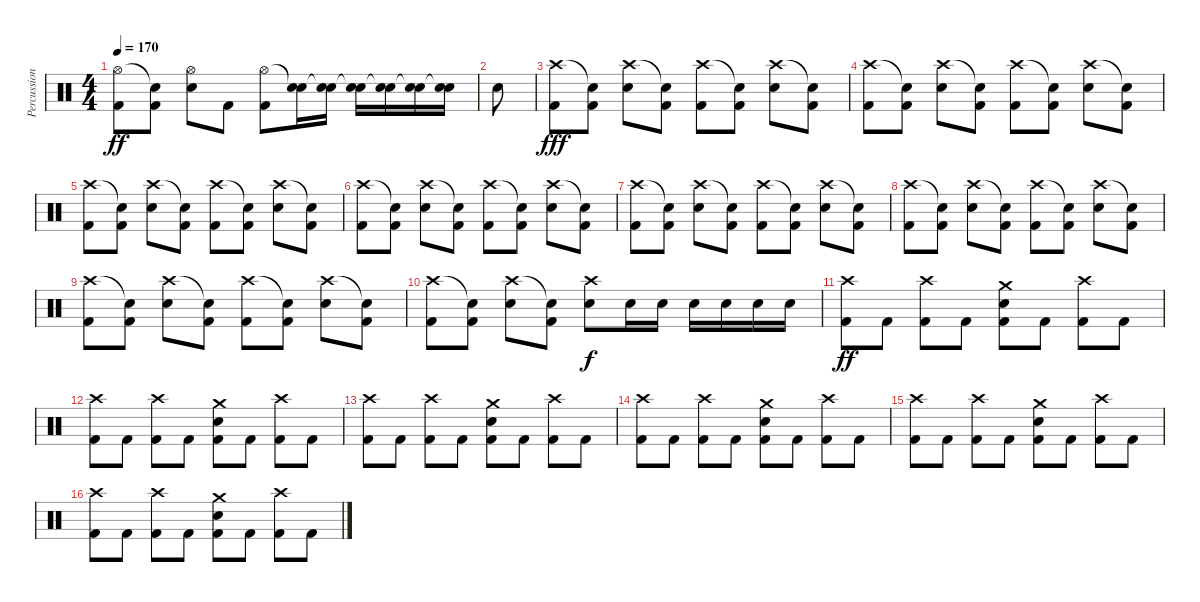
\track ("Percussion" "Percussion") {instrument percussion}
\staff {score}
\articulation defaults
\ts (4 4)
\tempo 170
\clef neutral
\ks c
("Hi-Hat (open)" "Kick (hit) 2").8{dy ff} ("Snare (hit)"{t} "Kick (hit) 2").8 ("Hi-Hat (open)" "Electric Snare (hit)").8 "Kick (hit) 2".8 ("Hi-Hat (open)" "Kick (hit) 2").8 ("Snare (hit)"{t} "Electric Snare (hit)").16 ("Snare (hit)"{t} "Electric Snare (hit)").16 ("Snare (hit)"{t} "Electric Snare (hit)").16 ("Snare (hit)"{t} "Electric Snare (hit)").16 ("Snare (hit)"{t} "Electric Snare (hit)").16 ("Snare (hit)"{t} "Electric Snare (hit)").16 |
"Electric Snare (hit)".8 |
("Crash high (hit)" "Kick (hit) 2").8{dy fff} ("Snare (hit)"{t} "Kick (hit) 2").8 ("Crash high (hit)" "Electric Snare (hit)").8 ("Snare (hit)"{t} "Kick (hit) 2").8 ("Crash high (hit)" "Kick (hit) 2").8 ("Snare (hit)"{t} "Kick (hit) 2").8 ("Crash high (hit)" "Electric Snare (hit)").8 ("Snare (hit)"{t} "Kick (hit) 2").8 |
("Crash high (hit)" "Kick (hit) 2").8 ("Snare (hit)"{t} "Kick (hit) 2").8 ("Crash high (hit)" "Electric Snare (hit)").8 ("Snare (hit)"{t} "Kick (hit) 2").8 ("Crash high (hit)" "Kick (hit) 2").8 ("Snare (hit)"{t} "Kick (hit) 2").8 ("Crash high (hit)" "Electric Snare (hit)").8 ("Snare (hit)"{t} "Kick (hit) 2").8 |
("Crash high (hit)" "Kick (hit) 2").8 ("Snare (hit)"{t} "Kick (hit) 2").8 ("Crash high (hit)" "Electric Snare (hit)").8 ("Snare (hit)"{t} "Kick (hit) 2").8 ("Crash high (hit)" "Kick (hit) 2").8 ("Snare (hit)"{t} "Kick (hit) 2").8 ("Crash high (hit)" "Electric Snare (hit)").8 ("Snare (hit)"{t} "Kick (hit) 2").8 |
("Crash high (hit)" "Kick (hit) 2").8 ("Snare (hit)"{t} "Kick (hit) 2").8 ("Crash high (hit)" "Electric Snare (hit)").8 ("Snare (hit)"{t} "Kick (hit) 2").8 ("Crash high (hit)" "Kick (hit) 2").8 ("Snare (hit)"{t} "Kick (hit) 2").8 ("Crash high (hit)" "Electric Snare (hit)").8 ("Snare (hit)"{t} "Kick (hit) 2").8 |
("Crash high (hit)" "Kick (hit) 2").8 ("Snare (hit)"{t} "Kick (hit) 2").8 ("Crash high (hit)" "Electric Snare (hit)").8 ("Snare (hit)"{t} "Kick (hit) 2").8 ("Crash high (hit)" "Kick (hit) 2").8 ("Snare (hit)"{t} "Kick (hit) 2").8 ("Crash high (hit)" "Electric Snare (hit)").8 ("Snare (hit)"{t} "Kick (hit) 2").8 |
("Crash high (hit)" "Kick (hit) 2").8 ("Snare (hit)"{t} "Kick (hit) 2").8 ("Crash high (hit)" "Electric Snare (hit)").8 ("Snare (hit)"{t} "Kick (hit) 2").8 ("Crash high (hit)" "Kick (hit) 2").8 ("Snare (hit)"{t} "Kick (hit) 2").8 ("Crash high (hit)" "Electric Snare (hit)").8 ("Snare (hit)"{t} "Kick (hit) 2").8 |
("Crash high (hit)" "Kick (hit) 2").8 ("Snare (hit)"{t} "Kick (hit) 2").8 ("Crash high (hit)" "Electric Snare (hit)").8 ("Snare (hit)"{t} "Kick (hit) 2").8 ("Crash high (hit)" "Kick (hit) 2").8 ("Snare (hit)"{t} "Kick (hit) 2").8 ("Crash high (hit)" "Electric Snare (hit)").8 ("Snare (hit)"{t} "Kick (hit) 2").8 |
("Crash high (hit)" "Kick (hit) 2").8 ("Snare (hit)"{t} "Kick (hit) 2").8 ("Crash high (hit)" "Electric Snare (hit)").8 ("Snare (hit)"{t} "Kick (hit) 2").8 ("Crash high (hit)" "Electric Snare (hit)").8{dy f} "Electric Snare (hit)".16 "Electric Snare (hit)".16 "Electric Snare (hit)".16 "Electric Snare (hit)".16 "Electric Snare (hit)".16 "Electric Snare (hit)".16 |
("Crash high (hit)" "Kick (hit) 2").8{dy ff} "Kick (hit) 2".8 ("Crash high (hit)" "Kick (hit) 2").8 "Kick (hit) 2".8 ("Crash medium (hit)" "Electric Snare (hit)" "Kick (hit) 2").8 "Kick (hit) 2".8 ("Crash high (hit)" "Kick (hit) 2").8 "Kick (hit) 2".8 |
("Crash high (hit)" "Kick (hit) 2").8 "Kick (hit) 2".8 ("Crash high (hit)" "Kick (hit) 2").8 "Kick (hit) 2".8 ("Crash medium (hit)" "Electric Snare (hit)" "Kick (hit) 2").8 "Kick (hit) 2".8 ("Crash high (hit)" "Kick (hit) 2").8 "Kick (hit) 2".8 |
("Crash high (hit)" "Kick (hit) 2").8 "Kick (hit) 2".8 ("Crash high (hit)" "Kick (hit) 2").8 "Kick (hit) 2".8 ("Crash medium (hit)" "Electric Snare (hit)" "Kick (hit) 2").8 "Kick (hit) 2".8 ("Crash high (hit)" "Kick (hit) 2").8 "Kick (hit) 2".8 |
("Crash high (hit)" "Kick (hit) 2").8 "Kick (hit) 2".8 ("Crash high (hit)" "Kick (hit) 2").8 "Kick (hit) 2".8 ("Crash medium (hit)" "Electric Snare (hit)" "Kick (hit) 2").8 "Kick (hit) 2".8 ("Crash high (hit)" "Kick (hit) 2").8 "Kick (hit) 2".8 |
("Crash high (hit)" "Kick (hit) 2").8 "Kick (hit) 2".8 ("Crash high (hit)" "Kick (hit) 2").8 "Kick (hit) 2".8 ("Crash medium (hit)" "Electric Snare (hit)" "Kick (hit) 2").8 "Kick (hit) 2".8 ("Crash high (hit)" "Kick (hit) 2").8 "Kick (hit) 2".8 |
("Crash high (hit)" "Kick (hit) 2").8 "Kick (hit) 2".8 ("Crash high (hit)" "Kick (hit) 2").8 "Kick (hit) 2".8 ("Crash medium (hit)" "Electric Snare (hit)" "Kick (hit) 2").8 "Kick (hit) 2".8 ("Crash high (hit)" "Kick (hit) 2").8 "Kick (hit) 2".8
